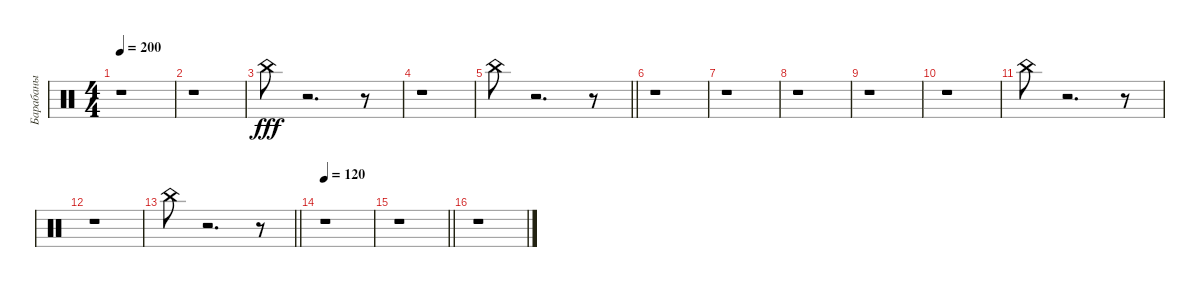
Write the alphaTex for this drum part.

\track ("Барабаны" "Барабаны") {instrument percussion}
\staff {score}
\articulation defaults
\ts (4 4)
\tempo 200
\clef neutral
\ks c
r.1{dy fff} |
r.1 |
"China (hit)".8 r.2{d} r.8 |
r.1 |
\barLineRight lightlight "China (hit)".8
r.2{d} r.8 |
r.1 |
r.1 |
r.1 |
r.1 |
r.1 |
"China (hit)".8 r.2{d} r.8 |
r.1 |
\barLineRight lightlight "China (hit)".8
r.2{d} r.8 |
\section ("" " ")
\tempo 120
r.1 |
\barLineRight lightlight
r.1 |
r.1
